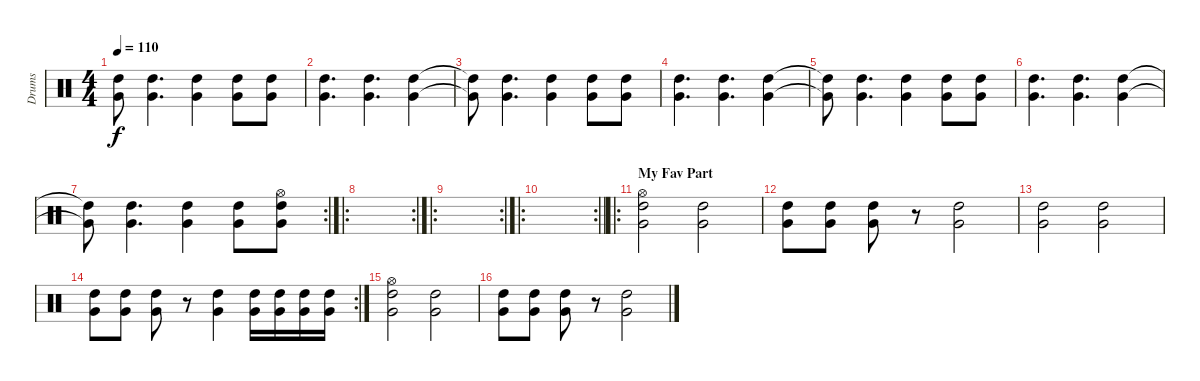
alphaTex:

\track ("Drums" "Drums") {instrument percussion}
\staff {score}
\articulation defaults
\ts (4 4)
\tempo 110
\clef neutral
\ks c
("Very Low Tom (hit)"{t} "High Tom (hit)"{t}).8{dy f} ("Very Low Tom (hit)" "High Tom (hit)").4{d} ("Very Low Tom (hit)" "High Tom (hit)").4 ("Very Low Tom (hit)" "High Tom (hit)").8 ("Very Low Tom (hit)" "High Tom (hit)").8 |
("Very Low Tom (hit)" "High Tom (hit)").4{d} ("Very Low Tom (hit)" "High Tom (hit)").4{d} ("Very Low Tom (hit)" "High Tom (hit)").4 |
("Very Low Tom (hit)"{t} "High Tom (hit)"{t}).8 ("Very Low Tom (hit)" "High Tom (hit)").4{d} ("Very Low Tom (hit)" "High Tom (hit)").4 ("Very Low Tom (hit)" "High Tom (hit)").8 ("Very Low Tom (hit)" "High Tom (hit)").8 |
("Very Low Tom (hit)" "High Tom (hit)").4{d} ("Very Low Tom (hit)" "High Tom (hit)").4{d} ("Very Low Tom (hit)" "High Tom (hit)").4 |
("Very Low Tom (hit)"{t} "High Tom (hit)"{t}).8 ("Very Low Tom (hit)" "High Tom (hit)").4{d} ("Very Low Tom (hit)" "High Tom (hit)").4 ("Very Low Tom (hit)" "High Tom (hit)").8 ("Very Low Tom (hit)" "High Tom (hit)").8 |
("Very Low Tom (hit)" "High Tom (hit)").4{d} ("Very Low Tom (hit)" "High Tom (hit)").4{d} ("Very Low Tom (hit)" "High Tom (hit)").4 |
\rc 2
("Very Low Tom (hit)"{t} "High Tom (hit)"{t}).8 ("Very Low Tom (hit)" "High Tom (hit)").4{d} ("Very Low Tom (hit)" "High Tom (hit)").4 ("Very Low Tom (hit)" "High Tom (hit)").8 ("Hi-Hat (open)" "Very Low Tom (hit)" "High Tom (hit)").8 |
\ro
\rc 2
|
\ro
\rc 2
|
\ro
\rc 2
\barLineRight lightlight
|
\ro
\section ("" "My Fav Part")
("Hi-Hat (open)" "Very Low Tom (hit)" "High Tom (hit)").2 ("Very Low Tom (hit)" "High Tom (hit)").2 |
("Very Low Tom (hit)" "High Tom (hit)").8 ("Very Low Tom (hit)" "High Tom (hit)").8 ("Very Low Tom (hit)" "High Tom (hit)").8 r.8 ("Very Low Tom (hit)" "High Tom (hit)").2 |
("Very Low Tom (hit)" "High Tom (hit)").2 ("Very Low Tom (hit)" "High Tom (hit)").2 |
\rc 2
("Very Low Tom (hit)" "High Tom (hit)").8 ("Very Low Tom (hit)" "High Tom (hit)").8 ("Very Low Tom (hit)" "High Tom (hit)").8 r.8 ("Very Low Tom (hit)" "High Tom (hit)").4 ("Very Low Tom (hit)" "High Tom (hit)").16 ("Very Low Tom (hit)" "High Tom (hit)").16 ("Very Low Tom (hit)" "High Tom (hit)").16 ("Very Low Tom (hit)" "High Tom (hit)").16 |
("Hi-Hat (open)" "Very Low Tom (hit)" "High Tom (hit)").2 ("Very Low Tom (hit)" "High Tom (hit)").2 |
("Very Low Tom (hit)" "High Tom (hit)").8 ("Very Low Tom (hit)" "High Tom (hit)").8 ("Very Low Tom (hit)" "High Tom (hit)").8 r.8 ("Very Low Tom (hit)" "High Tom (hit)").2
